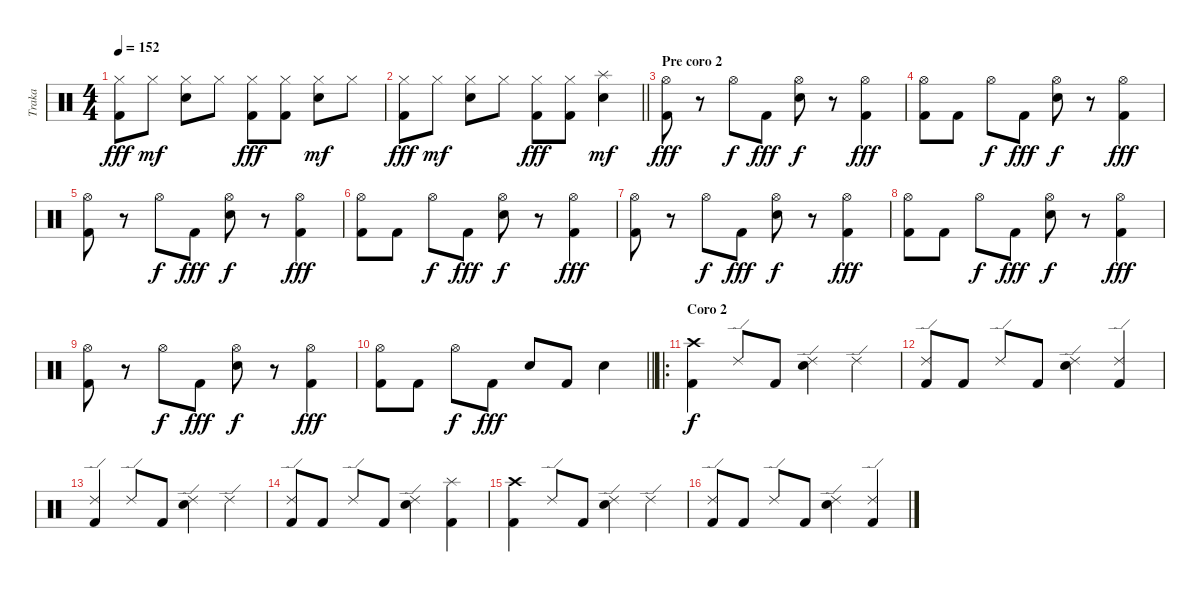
\track ("Traka" "Traka") {instrument percussion}
\staff {score}
\articulation defaults
\ts (4 4)
\tempo 152
\clef neutral
\ks c
("Hi-Hat (closed)" "Kick (hit) 2").8{dy fff} "Hi-Hat (closed)".8{dy mf} ("Hi-Hat (closed)" "Electric Snare (hit)").8 "Hi-Hat (closed)".8 ("Hi-Hat (closed)" "Kick (hit) 2").8{dy fff} ("Hi-Hat (closed)" "Kick (hit) 2").8 ("Hi-Hat (closed)" "Electric Snare (hit)").8{dy mf} "Hi-Hat (closed)".8 |
\barLineRight lightlight
("Hi-Hat (closed)" "Kick (hit) 2").8{dy fff} "Hi-Hat (closed)".8{dy mf} ("Hi-Hat (closed)" "Electric Snare (hit)").8 "Hi-Hat (closed)".8 ("Hi-Hat (closed)" "Kick (hit) 2").8{dy fff} ("Hi-Hat (closed)" "Kick (hit) 2").8 ("Splash (hit)" "Electric Snare (hit)").4{dy mf} |
\section ("" "Pre coro 2")
("Hi-Hat (open)" "Kick (hit) 2").8{dy fff} r.8 "Hi-Hat (open)".8{dy f} "Kick (hit) 2".8{dy fff} ("Hi-Hat (open)" "Electric Snare (hit)").8{dy f} r.8 ("Hi-Hat (open)" "Kick (hit) 2").4{dy fff} |
("Hi-Hat (open)" "Kick (hit) 2").8 "Kick (hit) 2".8 "Hi-Hat (open)".8{dy f} "Kick (hit) 2".8{dy fff} ("Hi-Hat (open)" "Electric Snare (hit)").8{dy f} r.8 ("Hi-Hat (open)" "Kick (hit) 2").4{dy fff} |
("Hi-Hat (open)" "Kick (hit) 2").8 r.8 "Hi-Hat (open)".8{dy f} "Kick (hit) 2".8{dy fff} ("Hi-Hat (open)" "Electric Snare (hit)").8{dy f} r.8 ("Hi-Hat (open)" "Kick (hit) 2").4{dy fff} |
("Hi-Hat (open)" "Kick (hit) 2").8 "Kick (hit) 2".8 "Hi-Hat (open)".8{dy f} "Kick (hit) 2".8{dy fff} ("Hi-Hat (open)" "Electric Snare (hit)").8{dy f} r.8 ("Hi-Hat (open)" "Kick (hit) 2").4{dy fff} |
("Hi-Hat (open)" "Kick (hit) 2").8 r.8 "Hi-Hat (open)".8{dy f} "Kick (hit) 2".8{dy fff} ("Hi-Hat (open)" "Electric Snare (hit)").8{dy f} r.8 ("Hi-Hat (open)" "Kick (hit) 2").4{dy fff} |
("Hi-Hat (open)" "Kick (hit) 2").8 "Kick (hit) 2".8 "Hi-Hat (open)".8{dy f} "Kick (hit) 2".8{dy fff} ("Hi-Hat (open)" "Electric Snare (hit)").8{dy f} r.8 ("Hi-Hat (open)" "Kick (hit) 2").4{dy fff} |
("Hi-Hat (open)" "Kick (hit) 2").8 r.8 "Hi-Hat (open)".8{dy f} "Kick (hit) 2".8{dy fff} ("Hi-Hat (open)" "Electric Snare (hit)").8{dy f} r.8 ("Hi-Hat (open)" "Kick (hit) 2").4{dy fff} |
\barLineRight lightlight
("Hi-Hat (open)" "Kick (hit) 2").8 "Kick (hit) 2".8 "Hi-Hat (open)".8{dy f} "Kick (hit) 2".8{dy fff} "Electric Snare (hit)".8 "Kick (hit) 2".8 "Electric Snare (hit)".4 |
\ro
\section ("" "Coro 2")
("Crash high (hit)" "Kick (hit) 2").4{dy f} "Ride (edge) 2".8 "Kick (hit) 2".8 ("Ride (edge) 2" "Electric Snare (hit)").4 "Ride (edge) 2".4 |
("Ride (edge) 2" "Kick (hit) 2").8 "Kick (hit) 2".8 "Ride (edge) 2".8 "Kick (hit) 2".8 ("Ride (edge) 2" "Electric Snare (hit)").4 ("Ride (edge) 2" "Kick (hit) 2").4 |
("Ride (edge) 2" "Kick (hit) 2").4 "Ride (edge) 2".8 "Kick (hit) 2".8 ("Ride (edge) 2" "Electric Snare (hit)").4 "Ride (edge) 2".4 |
("Ride (edge) 2" "Kick (hit) 2").8 "Kick (hit) 2".8 "Ride (edge) 2".8 "Kick (hit) 2".8 ("Ride (edge) 2" "Electric Snare (hit)").4 ("Splash (hit)" "Kick (hit) 2").4 |
("Crash high (hit)" "Kick (hit) 2").4 "Ride (edge) 2".8 "Kick (hit) 2".8 ("Ride (edge) 2" "Electric Snare (hit)").4 "Ride (edge) 2".4 |
("Ride (edge) 2" "Kick (hit) 2").8 "Kick (hit) 2".8 "Ride (edge) 2".8 "Kick (hit) 2".8 ("Ride (edge) 2" "Electric Snare (hit)").4 ("Ride (edge) 2" "Kick (hit) 2").4
